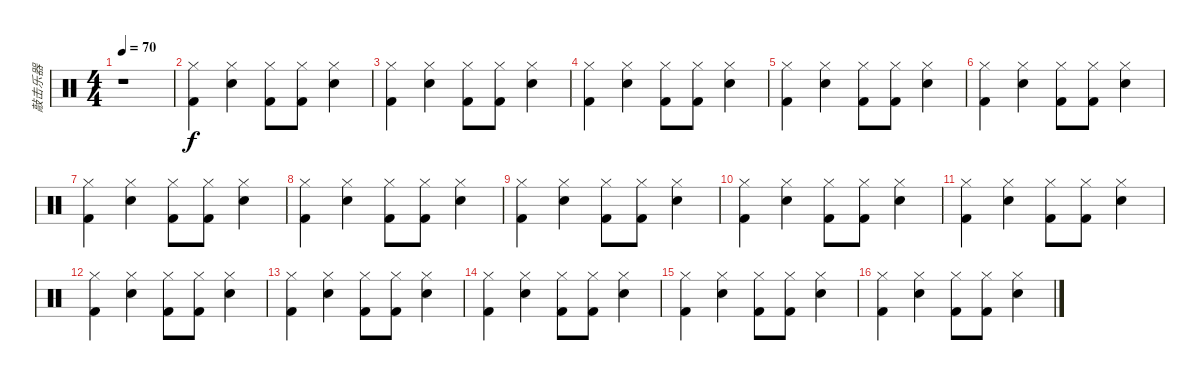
\track ("敲击乐器" "敲击乐器") {instrument percussion}
\staff {score}
\articulation defaults
\ts (4 4)
\tempo 70
\clef neutral
\ks c
r.1{dy f} |
("Hi-Hat (closed)" "Kick (hit) 2").4 ("Hi-Hat (closed)" "Snare (hit) 2").4 ("Hi-Hat (closed)" "Kick (hit) 2").8 ("Hi-Hat (closed)" "Kick (hit) 2").8 ("Hi-Hat (closed)" "Snare (hit) 2").4 |
("Hi-Hat (closed)" "Kick (hit) 2").4 ("Hi-Hat (closed)" "Snare (hit) 2").4 ("Hi-Hat (closed)" "Kick (hit) 2").8 ("Hi-Hat (closed)" "Kick (hit) 2").8 ("Hi-Hat (closed)" "Snare (hit) 2").4 |
("Hi-Hat (closed)" "Kick (hit) 2").4 ("Hi-Hat (closed)" "Snare (hit) 2").4 ("Hi-Hat (closed)" "Kick (hit) 2").8 ("Hi-Hat (closed)" "Kick (hit) 2").8 ("Hi-Hat (closed)" "Snare (hit) 2").4 |
("Hi-Hat (closed)" "Kick (hit) 2").4 ("Hi-Hat (closed)" "Snare (hit) 2").4 ("Hi-Hat (closed)" "Kick (hit) 2").8 ("Hi-Hat (closed)" "Kick (hit) 2").8 ("Hi-Hat (closed)" "Snare (hit) 2").4 |
("Hi-Hat (closed)" "Kick (hit) 2").4 ("Hi-Hat (closed)" "Snare (hit) 2").4 ("Hi-Hat (closed)" "Kick (hit) 2").8 ("Hi-Hat (closed)" "Kick (hit) 2").8 ("Hi-Hat (closed)" "Snare (hit) 2").4 |
("Hi-Hat (closed)" "Kick (hit) 2").4 ("Hi-Hat (closed)" "Snare (hit) 2").4 ("Hi-Hat (closed)" "Kick (hit) 2").8 ("Hi-Hat (closed)" "Kick (hit) 2").8 ("Hi-Hat (closed)" "Snare (hit) 2").4 |
("Hi-Hat (closed)" "Kick (hit) 2").4 ("Hi-Hat (closed)" "Snare (hit) 2").4 ("Hi-Hat (closed)" "Kick (hit) 2").8 ("Hi-Hat (closed)" "Kick (hit) 2").8 ("Hi-Hat (closed)" "Snare (hit) 2").4 |
("Hi-Hat (closed)" "Kick (hit) 2").4 ("Hi-Hat (closed)" "Snare (hit) 2").4 ("Hi-Hat (closed)" "Kick (hit) 2").8 ("Hi-Hat (closed)" "Kick (hit) 2").8 ("Hi-Hat (closed)" "Snare (hit) 2").4 |
("Hi-Hat (closed)" "Kick (hit) 2").4 ("Hi-Hat (closed)" "Snare (hit) 2").4 ("Hi-Hat (closed)" "Kick (hit) 2").8 ("Hi-Hat (closed)" "Kick (hit) 2").8 ("Hi-Hat (closed)" "Snare (hit) 2").4 |
("Hi-Hat (closed)" "Kick (hit) 2").4 ("Hi-Hat (closed)" "Snare (hit) 2").4 ("Hi-Hat (closed)" "Kick (hit) 2").8 ("Hi-Hat (closed)" "Kick (hit) 2").8 ("Hi-Hat (closed)" "Snare (hit) 2").4 |
("Hi-Hat (closed)" "Kick (hit) 2").4 ("Hi-Hat (closed)" "Snare (hit) 2").4 ("Hi-Hat (closed)" "Kick (hit) 2").8 ("Hi-Hat (closed)" "Kick (hit) 2").8 ("Hi-Hat (closed)" "Snare (hit) 2").4 |
("Hi-Hat (closed)" "Kick (hit) 2").4 ("Hi-Hat (closed)" "Snare (hit) 2").4 ("Hi-Hat (closed)" "Kick (hit) 2").8 ("Hi-Hat (closed)" "Kick (hit) 2").8 ("Hi-Hat (closed)" "Snare (hit) 2").4 |
("Hi-Hat (closed)" "Kick (hit) 2").4 ("Hi-Hat (closed)" "Snare (hit) 2").4 ("Hi-Hat (closed)" "Kick (hit) 2").8 ("Hi-Hat (closed)" "Kick (hit) 2").8 ("Hi-Hat (closed)" "Snare (hit) 2").4 |
("Hi-Hat (closed)" "Kick (hit) 2").4 ("Hi-Hat (closed)" "Snare (hit) 2").4 ("Hi-Hat (closed)" "Kick (hit) 2").8 ("Hi-Hat (closed)" "Kick (hit) 2").8 ("Hi-Hat (closed)" "Snare (hit) 2").4 |
("Hi-Hat (closed)" "Kick (hit) 2").4 ("Hi-Hat (closed)" "Snare (hit) 2").4 ("Hi-Hat (closed)" "Kick (hit) 2").8 ("Hi-Hat (closed)" "Kick (hit) 2").8 ("Hi-Hat (closed)" "Snare (hit) 2").4
